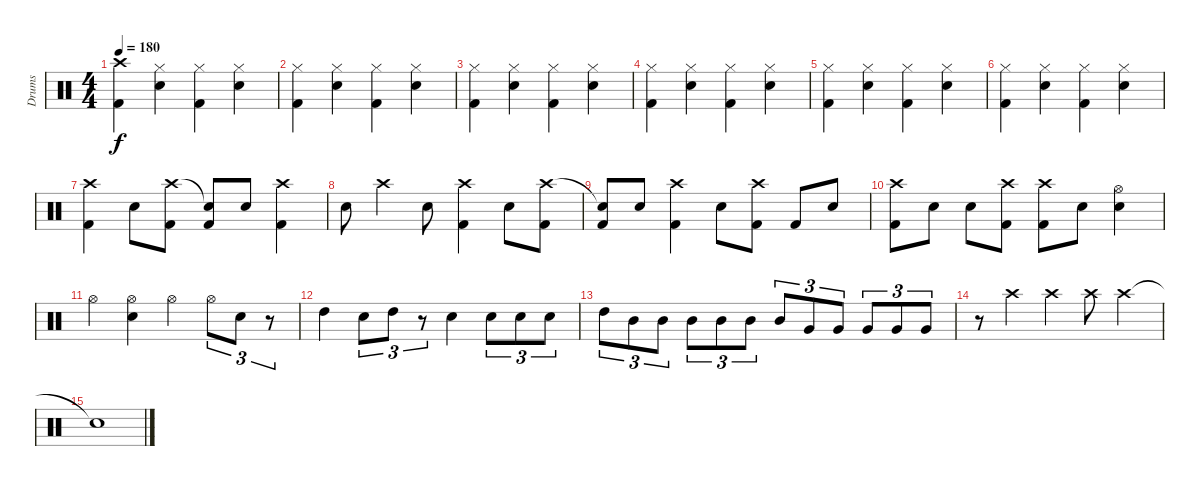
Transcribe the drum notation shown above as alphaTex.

\track ("Drums" "Drums") {instrument percussion}
\staff {score}
\articulation defaults
\ts (4 4)
\tempo 180
\clef neutral
\ks c
("Crash high (hit)" "Kick (hit) 2").4{dy f} ("Hi-Hat (closed)" "Snare (hit) 2").4 ("Hi-Hat (closed)" "Kick (hit) 2").4 ("Hi-Hat (closed)" "Snare (hit) 2").4 |
("Hi-Hat (closed)" "Kick (hit) 2").4 ("Hi-Hat (closed)" "Snare (hit) 2").4 ("Hi-Hat (closed)" "Kick (hit) 2").4 ("Hi-Hat (closed)" "Snare (hit) 2").4 |
("Hi-Hat (closed)" "Kick (hit) 2").4 ("Hi-Hat (closed)" "Snare (hit) 2").4 ("Hi-Hat (closed)" "Kick (hit) 2").4 ("Hi-Hat (closed)" "Snare (hit) 2").4 |
("Hi-Hat (closed)" "Kick (hit) 2").4 ("Hi-Hat (closed)" "Snare (hit) 2").4 ("Hi-Hat (closed)" "Kick (hit) 2").4 ("Hi-Hat (closed)" "Snare (hit) 2").4 |
("Hi-Hat (closed)" "Kick (hit) 2").4 ("Hi-Hat (closed)" "Snare (hit) 2").4 ("Hi-Hat (closed)" "Kick (hit) 2").4 ("Hi-Hat (closed)" "Snare (hit) 2").4 |
("Hi-Hat (closed)" "Kick (hit) 2").4 ("Hi-Hat (closed)" "Snare (hit) 2").4 ("Hi-Hat (closed)" "Kick (hit) 2").4 ("Hi-Hat (closed)" "Snare (hit) 2").4 |
("Crash high (hit)" "Kick (hit) 2").4 "Snare (hit) 2".8 ("Crash high (hit)" "Kick (hit) 2").8 ("Snare (hit)"{t} "Kick (hit) 2").8 "Snare (hit) 2".8 ("Crash high (hit)" "Kick (hit) 2").4 |
"Snare (hit) 2".8 "Crash high (hit)".4 "Snare (hit) 2".8 ("Crash high (hit)" "Kick (hit) 2").4 "Snare (hit) 2".8 ("Crash high (hit)" "Kick (hit) 2").8 |
("Snare (hit)"{t} "Kick (hit) 2").8 "Snare (hit) 2".8 ("Crash high (hit)" "Kick (hit) 2").4 "Snare (hit) 2".8 ("Crash high (hit)" "Kick (hit) 2").8 "Kick (hit) 2".8 "Snare (hit) 2".8 |
("Crash high (hit)" "Kick (hit) 2").8 "Snare (hit) 2".8 "Snare (hit) 2".8 ("Crash high (hit)" "Kick (hit) 2").8 ("Crash high (hit)" "Kick (hit) 2").8 "Snare (hit) 2".8 ("Hi-Hat (open)" "Snare (hit) 2").4 |
"Hi-Hat (open)".4 ("Hi-Hat (open)" "Snare (hit) 2").4 "Hi-Hat (open)".4 "Hi-Hat (open)".8{tu (3 2)} "Snare (hit) 2".8{tu (3 2)} r.8{tu (3 2)} |
"High Tom (hit)".4 "Snare (hit) 2".8{tu (3 2)} "High Tom (hit)".8{tu (3 2)} r.8{tu (3 2)} "Snare (hit) 2".4 "Snare (hit) 2".8{tu (3 2)} "Snare (hit) 2".8{tu (3 2)} "Snare (hit) 2".8{tu (3 2)} |
"High Tom (hit)".8{tu (3 2)} "Mid Tom (hit)".8{tu (3 2)} "Mid Tom (hit)".8{tu (3 2)} "Mid Tom (hit)".8{tu (3 2)} "Mid Tom (hit)".8{tu (3 2)} "Mid Tom (hit)".8{tu (3 2)} "Mid Tom (hit)".8{tu (3 2)} "Very Low Tom (hit)".8{tu (3 2)} "Very Low Tom (hit)".8{tu (3 2)} "Very Low Tom (hit)".8{tu (3 2)} "Very Low Tom (hit)".8{tu (3 2)} "Very Low Tom (hit)".8{tu (3 2)} |
r.8 "Crash high (hit)".4 "Crash high (hit)".4 "Crash high (hit)".8 "Crash high (hit)".4 |
"Snare (hit)"{t}.1
